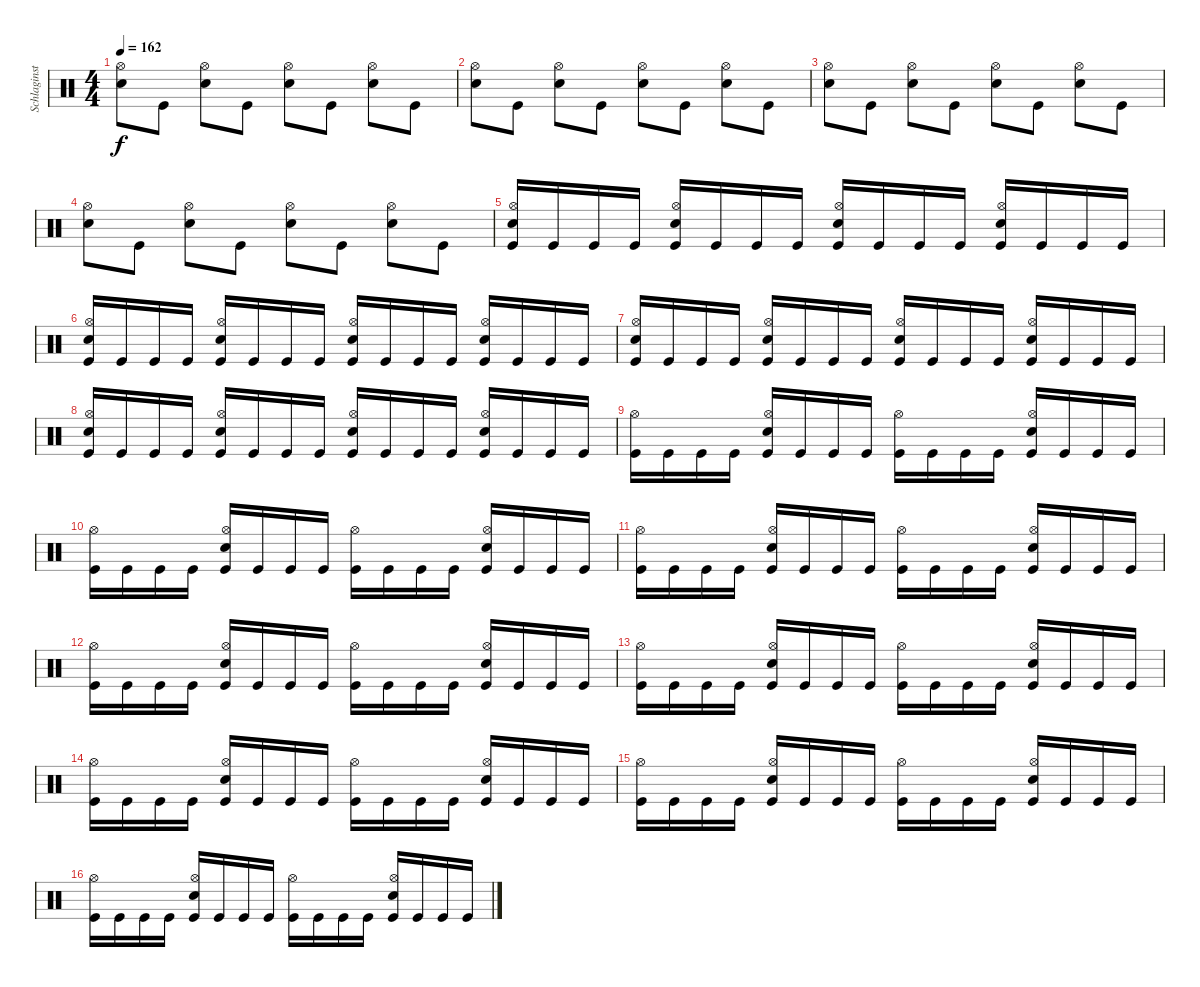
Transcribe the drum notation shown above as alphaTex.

\track ("Schlaginstrumente - Auswahl" "Schlaginst") {instrument percussion}
\staff {score}
\articulation defaults
\ts (4 4)
\tempo 162
\clef neutral
\ks c
("Electric Snare (hit)" "Hi-Hat (open)").8{dy f} "Kick (hit)".8 ("Electric Snare (hit)" "Hi-Hat (open)").8 "Kick (hit)".8 ("Electric Snare (hit)" "Hi-Hat (open)").8 "Kick (hit)".8 ("Electric Snare (hit)" "Hi-Hat (open)").8 "Kick (hit)".8 |
("Electric Snare (hit)" "Hi-Hat (open)").8 "Kick (hit)".8 ("Electric Snare (hit)" "Hi-Hat (open)").8 "Kick (hit)".8 ("Electric Snare (hit)" "Hi-Hat (open)").8 "Kick (hit)".8 ("Electric Snare (hit)" "Hi-Hat (open)").8 "Kick (hit)".8 |
("Electric Snare (hit)" "Hi-Hat (open)").8 "Kick (hit)".8 ("Electric Snare (hit)" "Hi-Hat (open)").8 "Kick (hit)".8 ("Electric Snare (hit)" "Hi-Hat (open)").8 "Kick (hit)".8 ("Electric Snare (hit)" "Hi-Hat (open)").8 "Kick (hit)".8 |
("Electric Snare (hit)" "Hi-Hat (open)").8 "Kick (hit)".8 ("Electric Snare (hit)" "Hi-Hat (open)").8 "Kick (hit)".8 ("Electric Snare (hit)" "Hi-Hat (open)").8 "Kick (hit)".8 ("Electric Snare (hit)" "Hi-Hat (open)").8 "Kick (hit)".8 |
("Kick (hit)" "Electric Snare (hit)" "Hi-Hat (open)").16 "Kick (hit)".16 "Kick (hit)".16 "Kick (hit)".16 ("Kick (hit)" "Electric Snare (hit)" "Hi-Hat (open)").16 "Kick (hit)".16 "Kick (hit)".16 "Kick (hit)".16 ("Kick (hit)" "Electric Snare (hit)" "Hi-Hat (open)").16 "Kick (hit)".16 "Kick (hit)".16 "Kick (hit)".16 ("Kick (hit)" "Electric Snare (hit)" "Hi-Hat (open)").16 "Kick (hit)".16 "Kick (hit)".16 "Kick (hit)".16 |
("Kick (hit)" "Electric Snare (hit)" "Hi-Hat (open)").16 "Kick (hit)".16 "Kick (hit)".16 "Kick (hit)".16 ("Kick (hit)" "Electric Snare (hit)" "Hi-Hat (open)").16 "Kick (hit)".16 "Kick (hit)".16 "Kick (hit)".16 ("Kick (hit)" "Electric Snare (hit)" "Hi-Hat (open)").16 "Kick (hit)".16 "Kick (hit)".16 "Kick (hit)".16 ("Kick (hit)" "Electric Snare (hit)" "Hi-Hat (open)").16 "Kick (hit)".16 "Kick (hit)".16 "Kick (hit)".16 |
("Kick (hit)" "Electric Snare (hit)" "Hi-Hat (open)").16 "Kick (hit)".16 "Kick (hit)".16 "Kick (hit)".16 ("Kick (hit)" "Electric Snare (hit)" "Hi-Hat (open)").16 "Kick (hit)".16 "Kick (hit)".16 "Kick (hit)".16 ("Kick (hit)" "Electric Snare (hit)" "Hi-Hat (open)").16 "Kick (hit)".16 "Kick (hit)".16 "Kick (hit)".16 ("Kick (hit)" "Electric Snare (hit)" "Hi-Hat (open)").16 "Kick (hit)".16 "Kick (hit)".16 "Kick (hit)".16 |
("Kick (hit)" "Electric Snare (hit)" "Hi-Hat (open)").16 "Kick (hit)".16 "Kick (hit)".16 "Kick (hit)".16 ("Kick (hit)" "Electric Snare (hit)" "Hi-Hat (open)").16 "Kick (hit)".16 "Kick (hit)".16 "Kick (hit)".16 ("Kick (hit)" "Electric Snare (hit)" "Hi-Hat (open)").16 "Kick (hit)".16 "Kick (hit)".16 "Kick (hit)".16 ("Kick (hit)" "Electric Snare (hit)" "Hi-Hat (open)").16 "Kick (hit)".16 "Kick (hit)".16 "Kick (hit)".16 |
("Kick (hit)" "Hi-Hat (open)").16{volume 3} "Kick (hit)".16 "Kick (hit)".16 "Kick (hit)".16 ("Kick (hit)" "Electric Snare (hit)" "Hi-Hat (open)").16 "Kick (hit)".16 "Kick (hit)".16 "Kick (hit)".16 ("Kick (hit)" "Hi-Hat (open)").16 "Kick (hit)".16 "Kick (hit)".16 "Kick (hit)".16 ("Kick (hit)" "Electric Snare (hit)" "Hi-Hat (open)").16 "Kick (hit)".16 "Kick (hit)".16 "Kick (hit)".16 |
("Kick (hit)" "Hi-Hat (open)").16{volume 3} "Kick (hit)".16 "Kick (hit)".16 "Kick (hit)".16 ("Kick (hit)" "Electric Snare (hit)" "Hi-Hat (open)").16 "Kick (hit)".16 "Kick (hit)".16 "Kick (hit)".16 ("Kick (hit)" "Hi-Hat (open)").16 "Kick (hit)".16 "Kick (hit)".16 "Kick (hit)".16 ("Kick (hit)" "Electric Snare (hit)" "Hi-Hat (open)").16 "Kick (hit)".16 "Kick (hit)".16 "Kick (hit)".16 |
("Kick (hit)" "Hi-Hat (open)").16{volume 3} "Kick (hit)".16 "Kick (hit)".16 "Kick (hit)".16 ("Kick (hit)" "Electric Snare (hit)" "Hi-Hat (open)").16 "Kick (hit)".16 "Kick (hit)".16 "Kick (hit)".16 ("Kick (hit)" "Hi-Hat (open)").16 "Kick (hit)".16 "Kick (hit)".16 "Kick (hit)".16 ("Kick (hit)" "Electric Snare (hit)" "Hi-Hat (open)").16 "Kick (hit)".16 "Kick (hit)".16 "Kick (hit)".16 |
("Kick (hit)" "Hi-Hat (open)").16{volume 3} "Kick (hit)".16 "Kick (hit)".16 "Kick (hit)".16 ("Kick (hit)" "Electric Snare (hit)" "Hi-Hat (open)").16 "Kick (hit)".16 "Kick (hit)".16 "Kick (hit)".16 ("Kick (hit)" "Hi-Hat (open)").16 "Kick (hit)".16 "Kick (hit)".16 "Kick (hit)".16 ("Kick (hit)" "Electric Snare (hit)" "Hi-Hat (open)").16 "Kick (hit)".16 "Kick (hit)".16 "Kick (hit)".16 |
("Kick (hit)" "Hi-Hat (open)").16{volume 3} "Kick (hit)".16 "Kick (hit)".16 "Kick (hit)".16 ("Kick (hit)" "Electric Snare (hit)" "Hi-Hat (open)").16 "Kick (hit)".16 "Kick (hit)".16 "Kick (hit)".16 ("Kick (hit)" "Hi-Hat (open)").16 "Kick (hit)".16 "Kick (hit)".16 "Kick (hit)".16 ("Kick (hit)" "Electric Snare (hit)" "Hi-Hat (open)").16 "Kick (hit)".16 "Kick (hit)".16 "Kick (hit)".16 |
("Kick (hit)" "Hi-Hat (open)").16{volume 3} "Kick (hit)".16 "Kick (hit)".16 "Kick (hit)".16 ("Kick (hit)" "Electric Snare (hit)" "Hi-Hat (open)").16 "Kick (hit)".16 "Kick (hit)".16 "Kick (hit)".16 ("Kick (hit)" "Hi-Hat (open)").16 "Kick (hit)".16 "Kick (hit)".16 "Kick (hit)".16 ("Kick (hit)" "Electric Snare (hit)" "Hi-Hat (open)").16 "Kick (hit)".16 "Kick (hit)".16 "Kick (hit)".16 |
("Kick (hit)" "Hi-Hat (open)").16{volume 3} "Kick (hit)".16 "Kick (hit)".16 "Kick (hit)".16 ("Kick (hit)" "Electric Snare (hit)" "Hi-Hat (open)").16 "Kick (hit)".16 "Kick (hit)".16 "Kick (hit)".16 ("Kick (hit)" "Hi-Hat (open)").16 "Kick (hit)".16 "Kick (hit)".16 "Kick (hit)".16 ("Kick (hit)" "Electric Snare (hit)" "Hi-Hat (open)").16 "Kick (hit)".16 "Kick (hit)".16 "Kick (hit)".16 |
("Kick (hit)" "Hi-Hat (open)").16{volume 3} "Kick (hit)".16 "Kick (hit)".16 "Kick (hit)".16 ("Kick (hit)" "Electric Snare (hit)" "Hi-Hat (open)").16 "Kick (hit)".16 "Kick (hit)".16 "Kick (hit)".16 ("Kick (hit)" "Hi-Hat (open)").16 "Kick (hit)".16 "Kick (hit)".16 "Kick (hit)".16 ("Kick (hit)" "Electric Snare (hit)" "Hi-Hat (open)").16 "Kick (hit)".16 "Kick (hit)".16 "Kick (hit)".16
